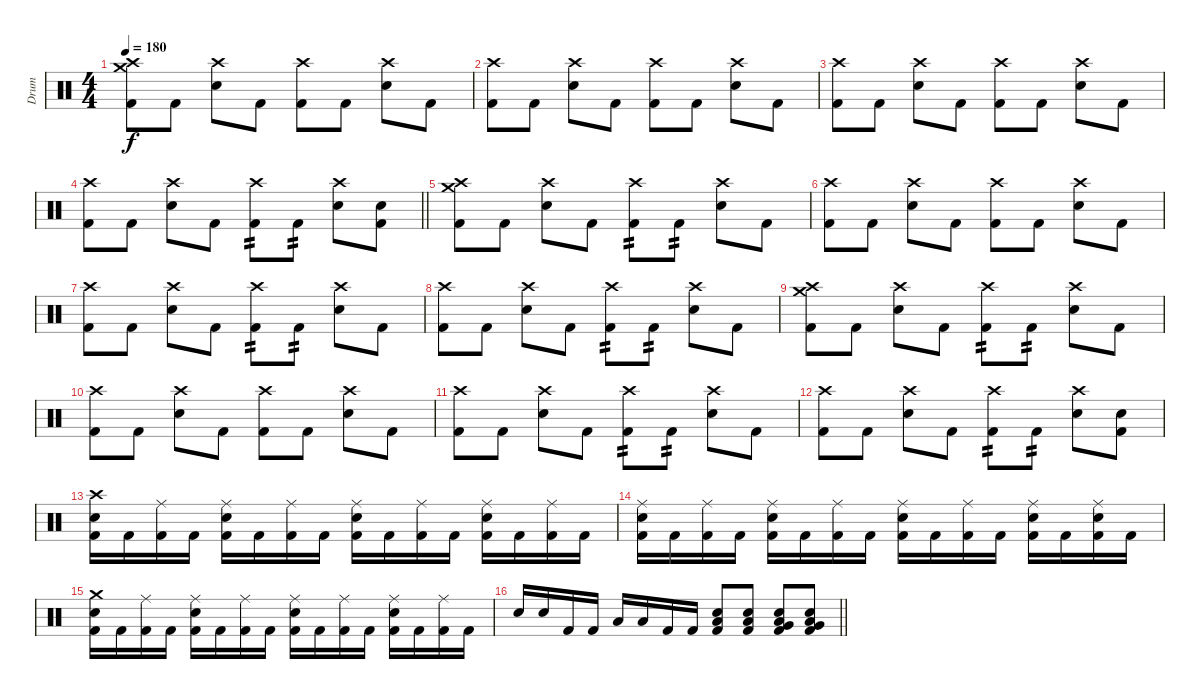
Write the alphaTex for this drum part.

\track ("Drum" "Drum") {instrument percussion}
\staff {score}
\articulation defaults
\ts (4 4)
\tempo 180
\clef neutral
\ks c
("Crash high (hit)" "Crash medium (hit)" "Kick (hit) 2").8{dy f} "Kick (hit) 2".8 ("Crash high (hit)" "Snare (hit) 2").8 "Kick (hit) 2".8 ("Crash high (hit)" "Kick (hit) 2").8 "Kick (hit) 2".8 ("Crash high (hit)" "Snare (hit) 2").8 "Kick (hit) 2".8 |
("Crash high (hit)" "Kick (hit) 2").8 "Kick (hit) 2".8 ("Crash high (hit)" "Snare (hit) 2").8 "Kick (hit) 2".8 ("Crash high (hit)" "Kick (hit) 2").8 "Kick (hit) 2".8 ("Crash high (hit)" "Snare (hit) 2").8 "Kick (hit) 2".8 |
("Crash high (hit)" "Kick (hit) 2").8 "Kick (hit) 2".8 ("Crash high (hit)" "Snare (hit) 2").8 "Kick (hit) 2".8 ("Crash high (hit)" "Kick (hit) 2").8 "Kick (hit) 2".8 ("Crash high (hit)" "Snare (hit) 2").8 "Kick (hit) 2".8 |
\barLineRight lightlight
("Crash high (hit)" "Kick (hit) 2").8 "Kick (hit) 2".8 ("Crash high (hit)" "Snare (hit) 2").8 "Kick (hit) 2".8 ("Crash high (hit)" "Kick (hit) 2").8{tp 2} "Kick (hit) 2".8{tp 2} ("Crash high (hit)" "Snare (hit) 2").8 ("Snare (hit) 2" "Kick (hit) 2").8 |
\section ("" "")
("Crash high (hit)" "Crash medium (hit)" "Kick (hit) 2").8 "Kick (hit) 2".8 ("Crash high (hit)" "Snare (hit) 2").8 "Kick (hit) 2".8 ("Crash high (hit)" "Kick (hit) 2").8{tp 2} "Kick (hit) 2".8{tp 2} ("Crash high (hit)" "Snare (hit) 2").8 "Kick (hit) 2".8 |
("Crash high (hit)" "Kick (hit) 2").8 "Kick (hit) 2".8 ("Crash high (hit)" "Snare (hit) 2").8 "Kick (hit) 2".8 ("Crash high (hit)" "Kick (hit) 2").8 "Kick (hit) 2".8 ("Crash high (hit)" "Snare (hit) 2").8 "Kick (hit) 2".8 |
("Crash high (hit)" "Kick (hit) 2").8 "Kick (hit) 2".8 ("Crash high (hit)" "Snare (hit) 2").8 "Kick (hit) 2".8 ("Crash high (hit)" "Kick (hit) 2").8{tp 2} "Kick (hit) 2".8{tp 2} ("Crash high (hit)" "Snare (hit) 2").8 "Kick (hit) 2".8 |
("Crash high (hit)" "Kick (hit) 2").8 "Kick (hit) 2".8 ("Crash high (hit)" "Snare (hit) 2").8 "Kick (hit) 2".8 ("Crash high (hit)" "Kick (hit) 2").8{tp 2} "Kick (hit) 2".8{tp 2} ("Crash high (hit)" "Snare (hit) 2").8 "Kick (hit) 2".8 |
("Crash high (hit)" "Crash medium (hit)" "Kick (hit) 2").8 "Kick (hit) 2".8 ("Crash high (hit)" "Snare (hit) 2").8 "Kick (hit) 2".8 ("Crash high (hit)" "Kick (hit) 2").8{tp 2} "Kick (hit) 2".8{tp 2} ("Crash high (hit)" "Snare (hit) 2").8 "Kick (hit) 2".8 |
("Crash high (hit)" "Kick (hit) 2").8 "Kick (hit) 2".8 ("Crash high (hit)" "Snare (hit) 2").8 "Kick (hit) 2".8 ("Crash high (hit)" "Kick (hit) 2").8 "Kick (hit) 2".8 ("Crash high (hit)" "Snare (hit) 2").8 "Kick (hit) 2".8 |
("Crash high (hit)" "Kick (hit) 2").8 "Kick (hit) 2".8 ("Crash high (hit)" "Snare (hit) 2").8 "Kick (hit) 2".8 ("Crash high (hit)" "Kick (hit) 2").8{tp 2} "Kick (hit) 2".8{tp 2} ("Crash high (hit)" "Snare (hit) 2").8 "Kick (hit) 2".8 |
("Crash high (hit)" "Kick (hit) 2").8 "Kick (hit) 2".8 ("Crash high (hit)" "Snare (hit) 2").8 "Kick (hit) 2".8 ("Crash high (hit)" "Kick (hit) 2").8{tp 2} "Kick (hit) 2".8{tp 2} ("Crash high (hit)" "Snare (hit) 2").8 ("Snare (hit) 2" "Kick (hit) 2").8 |
("Crash high (hit)" "Snare (hit) 2" "Kick (hit) 2").16 "Kick (hit) 2".16 ("Ride (middle)" "Kick (hit) 2").16 "Kick (hit) 2".16 ("Ride (middle)" "Snare (hit) 2" "Kick (hit) 2").16 "Kick (hit) 2".16 ("Ride (middle)" "Kick (hit) 2").16 "Kick (hit) 2".16 ("Ride (middle)" "Snare (hit) 2" "Kick (hit) 2").16 "Kick (hit) 2".16 ("Ride (middle)" "Kick (hit) 2").16 "Kick (hit) 2".16 ("Ride (middle)" "Snare (hit) 2" "Kick (hit) 2").16 "Kick (hit) 2".16 ("Ride (middle)" "Kick (hit) 2").16 "Kick (hit) 2".16 |
("Ride (middle)" "Snare (hit) 2" "Kick (hit) 2").16 "Kick (hit) 2".16 ("Ride (middle)" "Kick (hit) 2").16 "Kick (hit) 2".16 ("Ride (middle)" "Snare (hit) 2" "Kick (hit) 2").16 "Kick (hit) 2".16 ("Ride (middle)" "Kick (hit) 2").16 "Kick (hit) 2".16 ("Ride (middle)" "Snare (hit) 2" "Kick (hit) 2").16 "Kick (hit) 2".16 ("Ride (middle)" "Kick (hit) 2").16 "Kick (hit) 2".16 ("Ride (middle)" "Snare (hit) 2" "Kick (hit) 2").16 "Kick (hit) 2".16 ("Ride (middle)" "Snare (hit) 2" "Kick (hit) 2").16 "Kick (hit) 2".16 |
("Crash medium (hit)" "Snare (hit) 2" "Kick (hit) 2").16 "Kick (hit) 2".16 ("Ride (middle)" "Kick (hit) 2").16 "Kick (hit) 2".16 ("Ride (middle)" "Snare (hit) 2" "Kick (hit) 2").16 "Kick (hit) 2".16 ("Ride (middle)" "Kick (hit) 2").16 "Kick (hit) 2".16 ("Ride (middle)" "Snare (hit) 2" "Kick (hit) 2").16 "Kick (hit) 2".16 ("Ride (middle)" "Kick (hit) 2").16 "Kick (hit) 2".16 ("Ride (middle)" "Snare (hit) 2" "Kick (hit) 2").16 "Kick (hit) 2".16 ("Ride (middle)" "Kick (hit) 2").16 "Kick (hit) 2".16 |
\barLineRight lightlight "Snare (hit) 2".16 "Snare (hit) 2".16 "Kick (hit) 2".16 "Kick (hit) 2".16 "Low Floor Tom (hit)".16 "Low Floor Tom (hit)".16 "Kick (hit) 2".16 "Kick (hit) 2".16
("Low Floor Tom (hit)" "Snare (hit) 2" "Kick (hit) 2").8 ("Low Floor Tom (hit)" "Snare (hit) 2" "Kick (hit) 2").8 ("Very Low Tom (hit)" "Low Floor Tom (hit)" "Snare (hit) 2" "Kick (hit) 2").8 ("Very Low Tom (hit)" "Low Floor Tom (hit)" "Snare (hit) 2" "Kick (hit) 2").8
